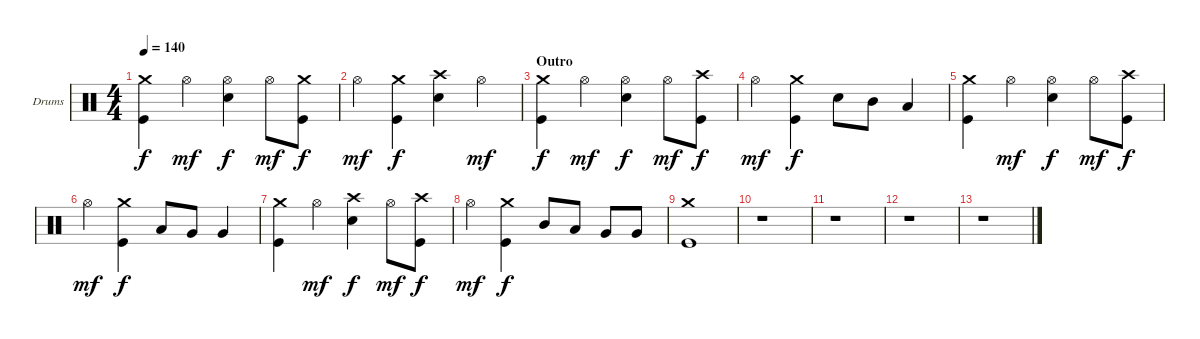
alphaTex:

\bracketExtendMode groupsimilarinstruments
\firstSystemTrackNameOrientation horizontal
\otherSystemsTrackNameOrientation horizontal
\track ("Drumkit" "Drums") {instrument percussion}
\staff {score}
\articulation defaults
\ts (4 4)
\tempo 140
\clef neutral
\ks c
("Kick (hit)" "Crash medium (hit)").4{dy f} "Hi-Hat (open)".4{dy mf} ("Snare (hit) 2" "Hi-Hat (open)").4{dy f} "Hi-Hat (open)".8{dy mf} ("Kick (hit)" "Crash medium (hit)").8{dy f} |
"Hi-Hat (open)".4{dy mf} ("Kick (hit)" "Crash medium (hit)").4{dy f} ("Snare (hit) 2" "Crash high (hit)").4 "Hi-Hat (open)".4{dy mf} |
\section ("" "Outro")
("Kick (hit)" "Crash medium (hit)").4{dy f} "Hi-Hat (open)".4{dy mf} ("Snare (hit) 2" "Hi-Hat (open)").4{dy f} "Hi-Hat (open)".8{dy mf} ("Kick (hit)" "Crash high (hit)").8{dy f} |
"Hi-Hat (open)".4{dy mf} ("Kick (hit)" "Crash medium (hit)").4{dy f} "Snare (hit) 2".8 "Mid Tom (hit)".8 "Low Tom (hit)".4 |
("Kick (hit)" "Crash medium (hit)").4 "Hi-Hat (open)".4{dy mf} ("Snare (hit) 2" "Hi-Hat (open)").4{dy f} "Hi-Hat (open)".8{dy mf} ("Kick (hit)" "Crash high (hit)").8{dy f} |
"Hi-Hat (open)".4{dy mf} ("Kick (hit)" "Crash medium (hit)").4{dy f} "Low Tom (hit)".8 "Very Low Tom (hit)".8 "Very Low Tom (hit)".4 |
("Kick (hit)" "Crash medium (hit)").4 "Hi-Hat (open)".4{dy mf} ("Snare (hit) 2" "Crash high (hit)").4{dy f} "Hi-Hat (open)".8{dy mf} ("Kick (hit)" "Crash high (hit)").8{dy f} |
"Hi-Hat (open)".4{dy mf} ("Kick (hit)" "Crash medium (hit)").4{dy f} "Mid Tom (hit)".8 "Low Tom (hit)".8 "Very Low Tom (hit)".8 "Very Low Tom (hit)".8 |
("Kick (hit)" "Crash medium (hit)").1 |
r.1 |
r.1 |
r.1 |
r.1
